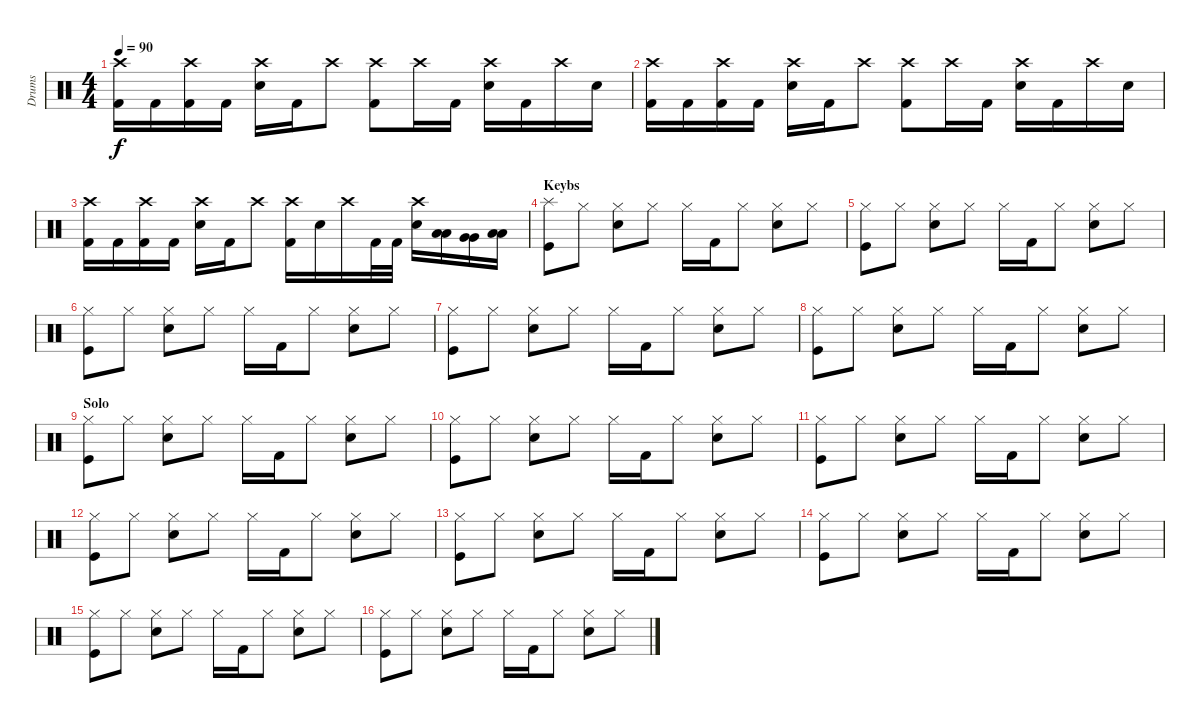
\track ("Drums" "Drums") {instrument percussion}
\staff {score}
\articulation defaults
\ts (4 4)
\tempo 90
\clef neutral
\ks c
("Crash high (hit)" "Kick (hit) 2").16{dy f} "Kick (hit) 2".16 ("Crash high (hit)" "Kick (hit) 2").16 "Kick (hit) 2".16 ("Crash high (hit)" "Electric Snare (hit)").16 "Kick (hit) 2".16 "Crash high (hit)".8 ("Crash high (hit)" "Kick (hit) 2").8 "Crash high (hit)".16 "Kick (hit) 2".16 ("Crash high (hit)" "Electric Snare (hit)").16 "Kick (hit) 2".16 "Crash high (hit)".16 "Electric Snare (hit)".16 |
("Crash high (hit)" "Kick (hit) 2").16 "Kick (hit) 2".16 ("Crash high (hit)" "Kick (hit) 2").16 "Kick (hit) 2".16 ("Crash high (hit)" "Electric Snare (hit)").16 "Kick (hit) 2".16 "Crash high (hit)".8 ("Crash high (hit)" "Kick (hit) 2").8 "Crash high (hit)".16 "Kick (hit) 2".16 ("Crash high (hit)" "Electric Snare (hit)").16 "Kick (hit) 2".16 "Crash high (hit)".16 "Electric Snare (hit)".16 |
("Crash high (hit)" "Kick (hit) 2").16 "Kick (hit) 2".16 ("Crash high (hit)" "Kick (hit) 2").16 "Kick (hit) 2".16 ("Crash high (hit)" "Electric Snare (hit)").16 "Kick (hit) 2".16 "Crash high (hit)".8 ("Crash high (hit)" "Kick (hit) 2").16 "Electric Snare (hit)".16 "Crash high (hit)".16 "Kick (hit) 2".32 "Kick (hit) 2".32 ("Crash high (hit)" "Electric Snare (hit)").16 ("Low Tom (hit)" "Low Tom (hit)").16 ("Very Low Tom (hit)" "Very Low Tom (hit)").16 ("Low Floor Tom (hit)" "Low Floor Tom (hit)").16 |
\section ("" "Keybs")
("Splash (hit)" "Kick (hit)").8{volume 10} "Hi-Hat (closed)".8 ("Hi-Hat (closed)" "Snare (hit) 2").8 "Hi-Hat (closed)".8 "Hi-Hat (closed)".16 "Kick (hit) 2".16 "Hi-Hat (closed)".8 ("Hi-Hat (closed)" "Snare (hit) 2").8 "Hi-Hat (closed)".8 |
("Hi-Hat (closed)" "Kick (hit)").8{volume 10} "Hi-Hat (closed)".8 ("Hi-Hat (closed)" "Snare (hit) 2").8 "Hi-Hat (closed)".8 "Hi-Hat (closed)".16 "Kick (hit) 2".16 "Hi-Hat (closed)".8 ("Hi-Hat (closed)" "Snare (hit) 2").8 "Hi-Hat (closed)".8 |
("Hi-Hat (closed)" "Kick (hit)").8{volume 10} "Hi-Hat (closed)".8 ("Hi-Hat (closed)" "Snare (hit) 2").8 "Hi-Hat (closed)".8 "Hi-Hat (closed)".16 "Kick (hit) 2".16 "Hi-Hat (closed)".8 ("Hi-Hat (closed)" "Snare (hit) 2").8 "Hi-Hat (closed)".8 |
("Hi-Hat (closed)" "Kick (hit)").8{volume 10} "Hi-Hat (closed)".8 ("Hi-Hat (closed)" "Snare (hit) 2").8 "Hi-Hat (closed)".8 "Hi-Hat (closed)".16{volume 10} "Kick (hit) 2".16{volume 9} "Hi-Hat (closed)".8{volume 8} ("Hi-Hat (closed)" "Snare (hit) 2").8{volume 7} "Hi-Hat (closed)".8{volume 6} |
("Hi-Hat (closed)" "Kick (hit)").8{volume 5} "Hi-Hat (closed)".8 ("Hi-Hat (closed)" "Snare (hit) 2").8 "Hi-Hat (closed)".8 "Hi-Hat (closed)".16 "Kick (hit) 2".16 "Hi-Hat (closed)".8 ("Hi-Hat (closed)" "Snare (hit) 2").8 "Hi-Hat (closed)".8 |
\section ("" "Solo")
("Hi-Hat (closed)" "Kick (hit)").8 "Hi-Hat (closed)".8 ("Hi-Hat (closed)" "Snare (hit) 2").8 "Hi-Hat (closed)".8 "Hi-Hat (closed)".16 "Kick (hit) 2".16 "Hi-Hat (closed)".8 ("Hi-Hat (closed)" "Snare (hit) 2").8 "Hi-Hat (closed)".8 |
("Hi-Hat (closed)" "Kick (hit)").8 "Hi-Hat (closed)".8 ("Hi-Hat (closed)" "Snare (hit) 2").8 "Hi-Hat (closed)".8 "Hi-Hat (closed)".16 "Kick (hit) 2".16 "Hi-Hat (closed)".8 ("Hi-Hat (closed)" "Snare (hit) 2").8 "Hi-Hat (closed)".8 |
("Hi-Hat (closed)" "Kick (hit)").8 "Hi-Hat (closed)".8 ("Hi-Hat (closed)" "Snare (hit) 2").8 "Hi-Hat (closed)".8 "Hi-Hat (closed)".16 "Kick (hit) 2".16 "Hi-Hat (closed)".8 ("Hi-Hat (closed)" "Snare (hit) 2").8 "Hi-Hat (closed)".8 |
("Hi-Hat (closed)" "Kick (hit)").8 "Hi-Hat (closed)".8 ("Hi-Hat (closed)" "Snare (hit) 2").8 "Hi-Hat (closed)".8 "Hi-Hat (closed)".16 "Kick (hit) 2".16 "Hi-Hat (closed)".8 ("Hi-Hat (closed)" "Snare (hit) 2").8 "Hi-Hat (closed)".8 |
("Hi-Hat (closed)" "Kick (hit)").8 "Hi-Hat (closed)".8 ("Hi-Hat (closed)" "Snare (hit) 2").8 "Hi-Hat (closed)".8 "Hi-Hat (closed)".16 "Kick (hit) 2".16 "Hi-Hat (closed)".8 ("Hi-Hat (closed)" "Snare (hit) 2").8 "Hi-Hat (closed)".8 |
("Hi-Hat (closed)" "Kick (hit)").8 "Hi-Hat (closed)".8 ("Hi-Hat (closed)" "Snare (hit) 2").8 "Hi-Hat (closed)".8 "Hi-Hat (closed)".16 "Kick (hit) 2".16 "Hi-Hat (closed)".8 ("Hi-Hat (closed)" "Snare (hit) 2").8 "Hi-Hat (closed)".8 |
("Hi-Hat (closed)" "Kick (hit)").8 "Hi-Hat (closed)".8 ("Hi-Hat (closed)" "Snare (hit) 2").8 "Hi-Hat (closed)".8 "Hi-Hat (closed)".16 "Kick (hit) 2".16 "Hi-Hat (closed)".8 ("Hi-Hat (closed)" "Snare (hit) 2").8 "Hi-Hat (closed)".8 |
("Hi-Hat (closed)" "Kick (hit)").8 "Hi-Hat (closed)".8 ("Hi-Hat (closed)" "Snare (hit) 2").8 "Hi-Hat (closed)".8 "Hi-Hat (closed)".16 "Kick (hit) 2".16 "Hi-Hat (closed)".8 ("Hi-Hat (closed)" "Snare (hit) 2").8 "Hi-Hat (closed)".8
